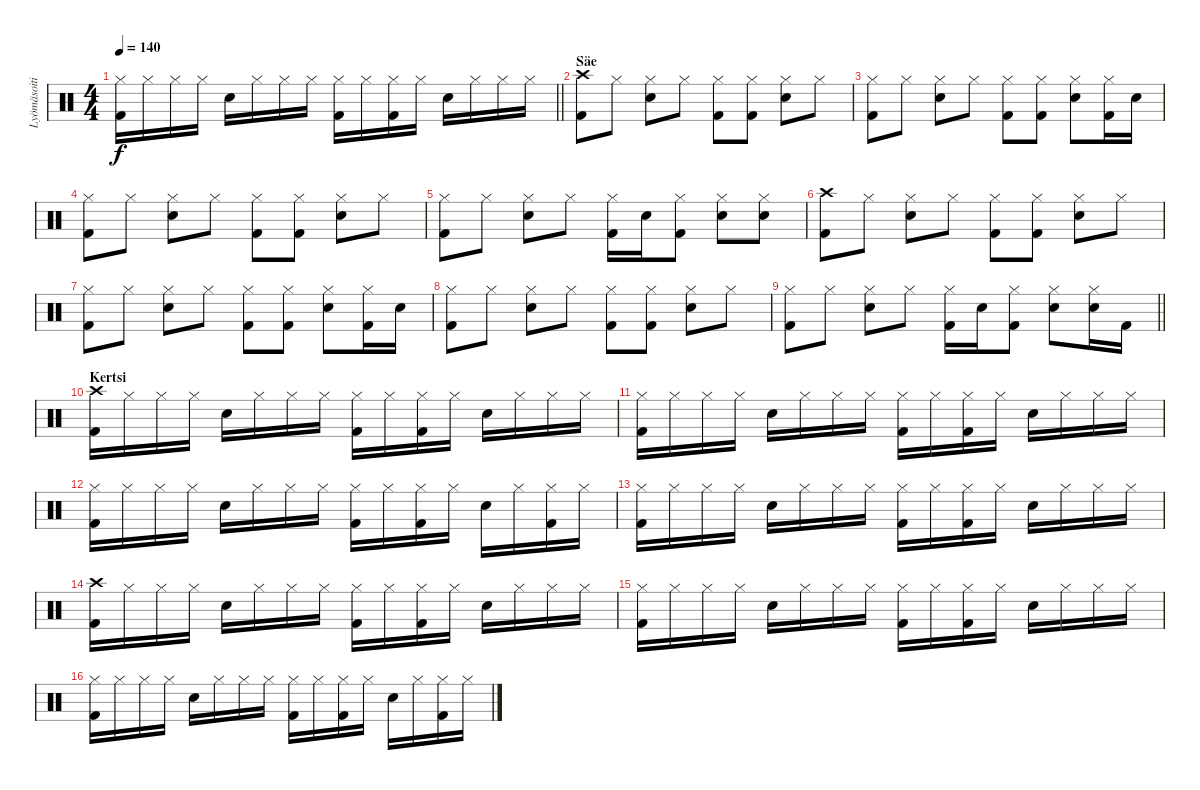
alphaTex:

\track ("Lyömäsoitin" "Lyömäsoiti") {instrument percussion}
\staff {score}
\articulation defaults
\ts (4 4)
\tempo 140
\clef neutral
\barLineRight lightlight
\ks c
("Hi-Hat (closed)" "Kick (hit) 2").16{dy f} "Hi-Hat (closed)".16 "Hi-Hat (closed)".16 "Hi-Hat (closed)".16 "Snare (hit) 2".16 "Hi-Hat (closed)".16 "Hi-Hat (closed)".16 "Hi-Hat (closed)".16 ("Hi-Hat (closed)" "Kick (hit) 2").16 "Hi-Hat (closed)".16 ("Hi-Hat (closed)" "Kick (hit) 2").16 "Hi-Hat (closed)".16 "Snare (hit) 2".16 "Hi-Hat (closed)".16 "Hi-Hat (closed)".16 "Hi-Hat (closed)".16 |
\section ("" "Säe")
("Crash high (hit)" "Kick (hit) 2").8 "Hi-Hat (closed)".8 ("Hi-Hat (closed)" "Snare (hit) 2").8 "Hi-Hat (closed)".8 ("Hi-Hat (closed)" "Kick (hit) 2").8 ("Hi-Hat (closed)" "Kick (hit) 2").8 ("Hi-Hat (closed)" "Snare (hit) 2").8 "Hi-Hat (closed)".8 |
("Hi-Hat (closed)" "Kick (hit) 2").8 "Hi-Hat (closed)".8 ("Hi-Hat (closed)" "Snare (hit) 2").8 "Hi-Hat (closed)".8 ("Hi-Hat (closed)" "Kick (hit) 2").8 ("Hi-Hat (closed)" "Kick (hit) 2").8 ("Hi-Hat (closed)" "Snare (hit) 2").8 ("Hi-Hat (closed)" "Kick (hit) 2").16 "Snare (hit) 2".16 |
("Hi-Hat (closed)" "Kick (hit) 2").8 "Hi-Hat (closed)".8 ("Hi-Hat (closed)" "Snare (hit) 2").8 "Hi-Hat (closed)".8 ("Hi-Hat (closed)" "Kick (hit) 2").8 ("Hi-Hat (closed)" "Kick (hit) 2").8 ("Hi-Hat (closed)" "Snare (hit) 2").8 "Hi-Hat (closed)".8 |
("Hi-Hat (closed)" "Kick (hit) 2").8 "Hi-Hat (closed)".8 ("Hi-Hat (closed)" "Snare (hit) 2").8 "Hi-Hat (closed)".8 ("Hi-Hat (closed)" "Kick (hit) 2").16 "Snare (hit) 2".16 ("Hi-Hat (closed)" "Kick (hit) 2").8 ("Hi-Hat (closed)" "Snare (hit) 2").8 ("Hi-Hat (closed)" "Snare (hit) 2").8 |
("Crash high (hit)" "Kick (hit) 2").8 "Hi-Hat (closed)".8 ("Hi-Hat (closed)" "Snare (hit) 2").8 "Hi-Hat (closed)".8 ("Hi-Hat (closed)" "Kick (hit) 2").8 ("Hi-Hat (closed)" "Kick (hit) 2").8 ("Hi-Hat (closed)" "Snare (hit) 2").8 "Hi-Hat (closed)".8 |
("Hi-Hat (closed)" "Kick (hit) 2").8 "Hi-Hat (closed)".8 ("Hi-Hat (closed)" "Snare (hit) 2").8 "Hi-Hat (closed)".8 ("Hi-Hat (closed)" "Kick (hit) 2").8 ("Hi-Hat (closed)" "Kick (hit) 2").8 ("Hi-Hat (closed)" "Snare (hit) 2").8 ("Hi-Hat (closed)" "Kick (hit) 2").16 "Snare (hit) 2".16 |
("Hi-Hat (closed)" "Kick (hit) 2").8 "Hi-Hat (closed)".8 ("Hi-Hat (closed)" "Snare (hit) 2").8 "Hi-Hat (closed)".8 ("Hi-Hat (closed)" "Kick (hit) 2").8 ("Hi-Hat (closed)" "Kick (hit) 2").8 ("Hi-Hat (closed)" "Snare (hit) 2").8 "Hi-Hat (closed)".8 |
\barLineRight lightlight
("Hi-Hat (closed)" "Kick (hit) 2").8 "Hi-Hat (closed)".8 ("Hi-Hat (closed)" "Snare (hit) 2").8 "Hi-Hat (closed)".8 ("Hi-Hat (closed)" "Kick (hit) 2").16 "Snare (hit) 2".16 ("Hi-Hat (closed)" "Kick (hit) 2").8 ("Hi-Hat (closed)" "Snare (hit) 2").8 ("Hi-Hat (closed)" "Snare (hit) 2").16 "Kick (hit) 2".16 |
\section ("" "Kertsi")
("Crash high (hit)" "Kick (hit) 2").16 "Hi-Hat (closed)".16 "Hi-Hat (closed)".16 "Hi-Hat (closed)".16 "Snare (hit) 2".16 "Hi-Hat (closed)".16 "Hi-Hat (closed)".16 "Hi-Hat (closed)".16 ("Hi-Hat (closed)" "Kick (hit) 2").16 "Hi-Hat (closed)".16 ("Hi-Hat (closed)" "Kick (hit) 2").16 "Hi-Hat (closed)".16 "Snare (hit) 2".16 "Hi-Hat (closed)".16 "Hi-Hat (closed)".16 "Hi-Hat (closed)".16 |
("Hi-Hat (closed)" "Kick (hit) 2").16 "Hi-Hat (closed)".16 "Hi-Hat (closed)".16 "Hi-Hat (closed)".16 "Snare (hit) 2".16 "Hi-Hat (closed)".16 "Hi-Hat (closed)".16 "Hi-Hat (closed)".16 ("Hi-Hat (closed)" "Kick (hit) 2").16 "Hi-Hat (closed)".16 ("Hi-Hat (closed)" "Kick (hit) 2").16 "Hi-Hat (closed)".16 "Snare (hit) 2".16 "Hi-Hat (closed)".16 "Hi-Hat (closed)".16 "Hi-Hat (closed)".16 |
("Hi-Hat (closed)" "Kick (hit) 2").16 "Hi-Hat (closed)".16 "Hi-Hat (closed)".16 "Hi-Hat (closed)".16 "Snare (hit) 2".16 "Hi-Hat (closed)".16 "Hi-Hat (closed)".16 "Hi-Hat (closed)".16 ("Hi-Hat (closed)" "Kick (hit) 2").16 "Hi-Hat (closed)".16 ("Hi-Hat (closed)" "Kick (hit) 2").16 "Hi-Hat (closed)".16 "Snare (hit) 2".16 "Hi-Hat (closed)".16 ("Hi-Hat (closed)" "Kick (hit) 2").16 "Hi-Hat (closed)".16 |
("Hi-Hat (closed)" "Kick (hit) 2").16 "Hi-Hat (closed)".16 "Hi-Hat (closed)".16 "Hi-Hat (closed)".16 "Snare (hit) 2".16 "Hi-Hat (closed)".16 "Hi-Hat (closed)".16 "Hi-Hat (closed)".16 ("Hi-Hat (closed)" "Kick (hit) 2").16 "Hi-Hat (closed)".16 ("Hi-Hat (closed)" "Kick (hit) 2").16 "Hi-Hat (closed)".16 "Snare (hit) 2".16 "Hi-Hat (closed)".16 "Hi-Hat (closed)".16 "Hi-Hat (closed)".16 |
("Crash high (hit)" "Kick (hit) 2").16 "Hi-Hat (closed)".16 "Hi-Hat (closed)".16 "Hi-Hat (closed)".16 "Snare (hit) 2".16 "Hi-Hat (closed)".16 "Hi-Hat (closed)".16 "Hi-Hat (closed)".16 ("Hi-Hat (closed)" "Kick (hit) 2").16 "Hi-Hat (closed)".16 ("Hi-Hat (closed)" "Kick (hit) 2").16 "Hi-Hat (closed)".16 "Snare (hit) 2".16 "Hi-Hat (closed)".16 "Hi-Hat (closed)".16 "Hi-Hat (closed)".16 |
("Hi-Hat (closed)" "Kick (hit) 2").16 "Hi-Hat (closed)".16 "Hi-Hat (closed)".16 "Hi-Hat (closed)".16 "Snare (hit) 2".16 "Hi-Hat (closed)".16 "Hi-Hat (closed)".16 "Hi-Hat (closed)".16 ("Hi-Hat (closed)" "Kick (hit) 2").16 "Hi-Hat (closed)".16 ("Hi-Hat (closed)" "Kick (hit) 2").16 "Hi-Hat (closed)".16 "Snare (hit) 2".16 "Hi-Hat (closed)".16 "Hi-Hat (closed)".16 "Hi-Hat (closed)".16 |
("Hi-Hat (closed)" "Kick (hit) 2").16 "Hi-Hat (closed)".16 "Hi-Hat (closed)".16 "Hi-Hat (closed)".16 "Snare (hit) 2".16 "Hi-Hat (closed)".16 "Hi-Hat (closed)".16 "Hi-Hat (closed)".16 ("Hi-Hat (closed)" "Kick (hit) 2").16 "Hi-Hat (closed)".16 ("Hi-Hat (closed)" "Kick (hit) 2").16 "Hi-Hat (closed)".16 "Snare (hit) 2".16 "Hi-Hat (closed)".16 ("Hi-Hat (closed)" "Kick (hit) 2").16 "Hi-Hat (closed)".16
